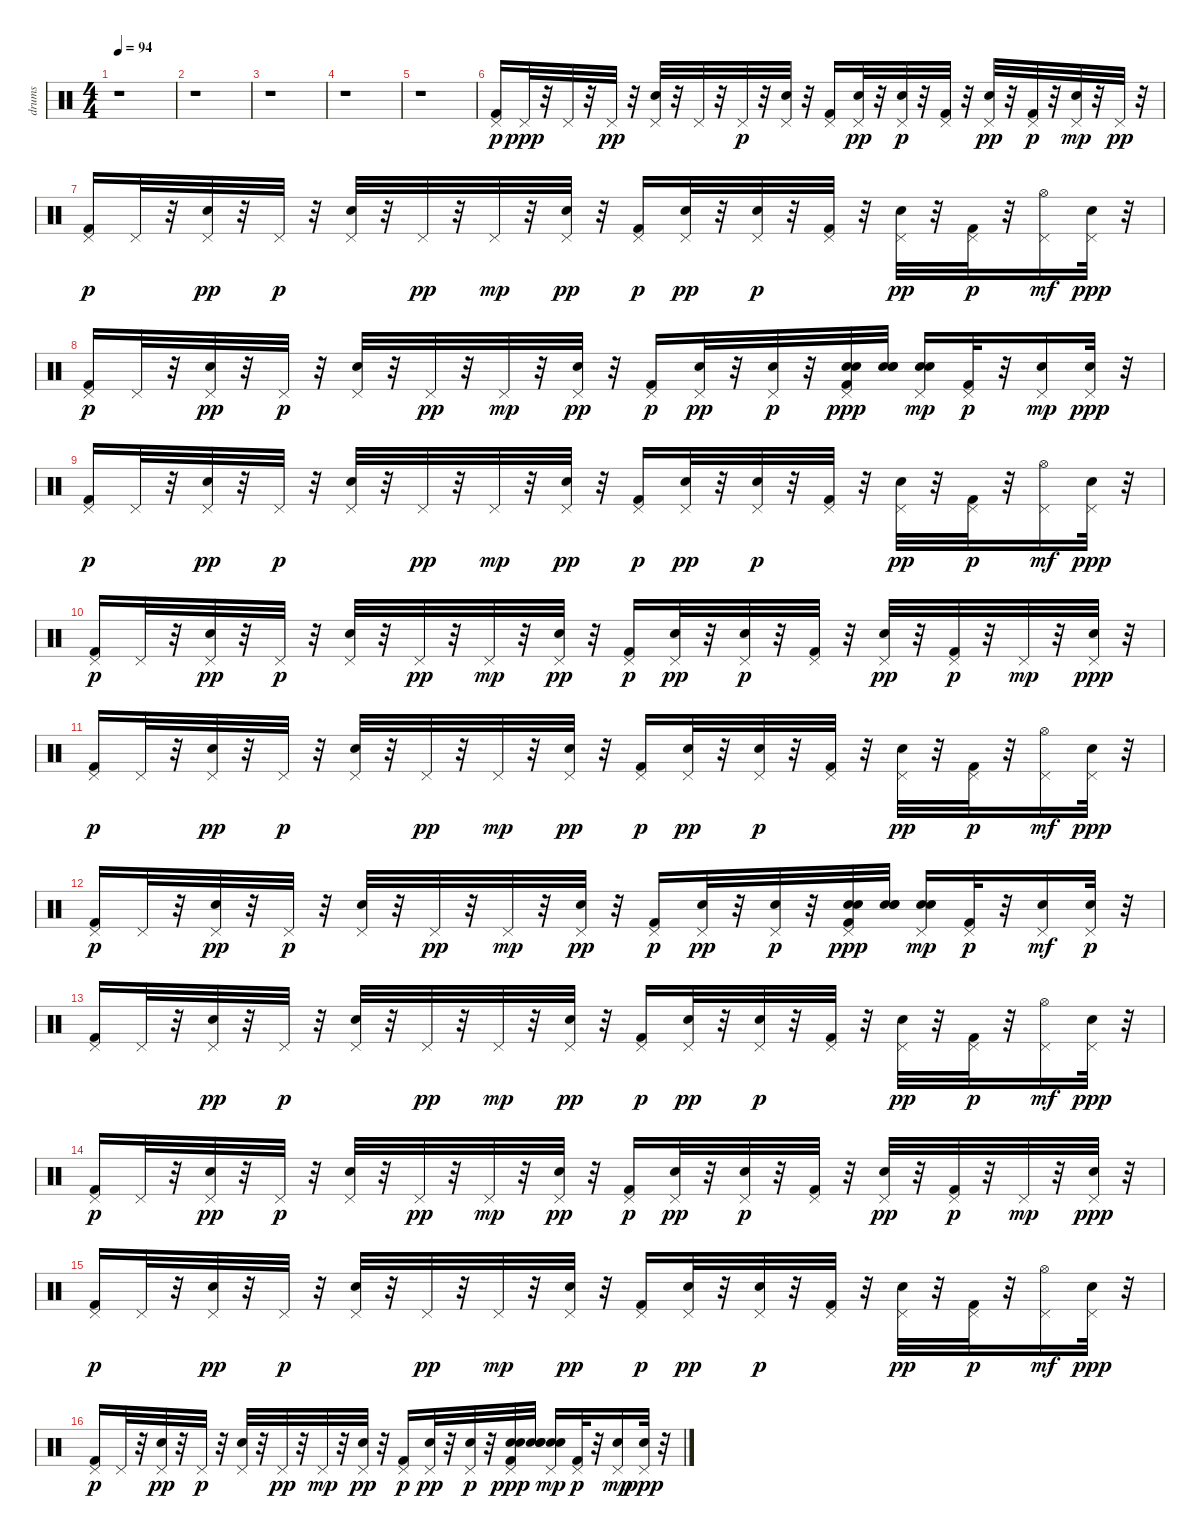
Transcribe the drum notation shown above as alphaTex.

\track ("drums" "drums") {instrument percussion}
\staff {score}
\articulation defaults
\ts (4 4)
\tempo 94
\clef neutral
\ks c
r.1{dy p} |
r.1 |
r.1 |
r.1 |
r.1 |
("Pedal Hi-Hat (hit)" "Kick (hit) 2").16{volume 14} "Pedal Hi-Hat (hit)".32{dy ppp} r.32 "Pedal Hi-Hat (hit)".32 r.32 "Pedal Hi-Hat (hit)".32{dy pp} r.32 ("Electric Snare (hit)" "Pedal Hi-Hat (hit)").32 r.32 "Pedal Hi-Hat (hit)".32 r.32 "Pedal Hi-Hat (hit)".32{dy p} r.32 ("Electric Snare (hit)" "Pedal Hi-Hat (hit)").32 r.32 ("Pedal Hi-Hat (hit)" "Kick (hit) 2").16 ("Pedal Hi-Hat (hit)" "Electric Snare (hit)").32{dy pp} r.32 ("Pedal Hi-Hat (hit)" "Electric Snare (hit)").32{dy p} r.32 ("Pedal Hi-Hat (hit)" "Kick (hit) 2").32 r.32 ("Pedal Hi-Hat (hit)" "Electric Snare (hit)").32{dy pp} r.32 ("Pedal Hi-Hat (hit)" "Kick (hit) 2").32{dy p} r.32 ("Electric Snare (hit)" "Pedal Hi-Hat (hit)").32{dy mp} r.32 "Pedal Hi-Hat (hit)".32{dy pp} r.32 |
("Pedal Hi-Hat (hit)" "Kick (hit) 2").16{dy p} "Pedal Hi-Hat (hit)".32 r.32 ("Pedal Hi-Hat (hit)" "Electric Snare (hit)").32{dy pp} r.32 "Pedal Hi-Hat (hit)".32{dy p} r.32 ("Pedal Hi-Hat (hit)" "Electric Snare (hit)").32 r.32 "Pedal Hi-Hat (hit)".32{dy pp} r.32 "Pedal Hi-Hat (hit)".32{dy mp} r.32 ("Pedal Hi-Hat (hit)" "Electric Snare (hit)").32{dy pp} r.32 ("Pedal Hi-Hat (hit)" "Kick (hit) 2").16{dy p} ("Pedal Hi-Hat (hit)" "Electric Snare (hit)").32{dy pp} r.32 ("Pedal Hi-Hat (hit)" "Electric Snare (hit)").32{dy p} r.32 ("Pedal Hi-Hat (hit)" "Kick (hit) 2").32 r.32 ("Pedal Hi-Hat (hit)" "Electric Snare (hit)").32{dy pp} r.32 ("Pedal Hi-Hat (hit)" "Kick (hit) 2").32{dy p} r.32 ("Hi-Hat (open)" "Pedal Hi-Hat (hit)").16{dy mf} ("Pedal Hi-Hat (hit)" "Electric Snare (hit)").32{dy ppp} r.32 |
("Pedal Hi-Hat (hit)" "Kick (hit) 2").16{dy p} "Pedal Hi-Hat (hit)".32 r.32 ("Pedal Hi-Hat (hit)" "Electric Snare (hit)").32{dy pp} r.32 "Pedal Hi-Hat (hit)".32{dy p} r.32 ("Pedal Hi-Hat (hit)" "Electric Snare (hit)").32 r.32 "Pedal Hi-Hat (hit)".32{dy pp} r.32 "Pedal Hi-Hat (hit)".32{dy mp} r.32 ("Pedal Hi-Hat (hit)" "Electric Snare (hit)").32{dy pp} r.32 ("Pedal Hi-Hat (hit)" "Kick (hit) 2").16{dy p} ("Pedal Hi-Hat (hit)" "Electric Snare (hit)").32{dy pp} r.32 ("Pedal Hi-Hat (hit)" "Electric Snare (hit)").32{dy p} r.32 ("Snare (hit) 2" "Pedal Hi-Hat (hit)" "Kick (hit) 2" "Snare (hit) 2").32{dy ppp balance 0} ("Snare (hit) 2" "Snare (hit) 2" "Snare (hit) 2").32 ("Snare (hit) 2" "Snare (hit) 2" "Pedal Hi-Hat (hit)").16{dy mp} ("Pedal Hi-Hat (hit)" "Kick (hit) 2").32{dy p} r.32 ("Snare (hit) 2" "Pedal Hi-Hat (hit)").16{dy mp} ("Pedal Hi-Hat (hit)" "Electric Snare (hit)").32{dy ppp} r.32 |
("Pedal Hi-Hat (hit)" "Kick (hit) 2").16{dy p} "Pedal Hi-Hat (hit)".32 r.32 ("Pedal Hi-Hat (hit)" "Electric Snare (hit)").32{dy pp} r.32 "Pedal Hi-Hat (hit)".32{dy p} r.32 ("Pedal Hi-Hat (hit)" "Electric Snare (hit)").32 r.32 "Pedal Hi-Hat (hit)".32{dy pp} r.32 "Pedal Hi-Hat (hit)".32{dy mp} r.32 ("Pedal Hi-Hat (hit)" "Electric Snare (hit)").32{dy pp} r.32 ("Pedal Hi-Hat (hit)" "Kick (hit) 2").16{dy p} ("Pedal Hi-Hat (hit)" "Electric Snare (hit)").32{dy pp} r.32 ("Pedal Hi-Hat (hit)" "Electric Snare (hit)").32{dy p} r.32 ("Pedal Hi-Hat (hit)" "Kick (hit) 2").32 r.32 ("Pedal Hi-Hat (hit)" "Electric Snare (hit)").32{dy pp} r.32 ("Pedal Hi-Hat (hit)" "Kick (hit) 2").32{dy p} r.32 ("Hi-Hat (open)" "Pedal Hi-Hat (hit)").16{dy mf} ("Pedal Hi-Hat (hit)" "Electric Snare (hit)").32{dy ppp} r.32 |
("Pedal Hi-Hat (hit)" "Kick (hit) 2").16{dy p} "Pedal Hi-Hat (hit)".32 r.32 ("Pedal Hi-Hat (hit)" "Electric Snare (hit)").32{dy pp} r.32 "Pedal Hi-Hat (hit)".32{dy p} r.32 ("Pedal Hi-Hat (hit)" "Electric Snare (hit)").32 r.32 "Pedal Hi-Hat (hit)".32{dy pp} r.32 "Pedal Hi-Hat (hit)".32{dy mp} r.32 ("Pedal Hi-Hat (hit)" "Electric Snare (hit)").32{dy pp} r.32 ("Pedal Hi-Hat (hit)" "Kick (hit) 2").16{dy p} ("Pedal Hi-Hat (hit)" "Electric Snare (hit)").32{dy pp} r.32 ("Pedal Hi-Hat (hit)" "Electric Snare (hit)").32{dy p} r.32 ("Pedal Hi-Hat (hit)" "Kick (hit) 2").32 r.32 ("Pedal Hi-Hat (hit)" "Electric Snare (hit)").32{dy pp} r.32 ("Pedal Hi-Hat (hit)" "Kick (hit) 2").32{dy p} r.32 "Pedal Hi-Hat (hit)".32{dy mp} r.32 ("Pedal Hi-Hat (hit)" "Electric Snare (hit)").32{dy ppp} r.32 |
("Pedal Hi-Hat (hit)" "Kick (hit) 2").16{dy p} "Pedal Hi-Hat (hit)".32 r.32 ("Pedal Hi-Hat (hit)" "Electric Snare (hit)").32{dy pp} r.32 "Pedal Hi-Hat (hit)".32{dy p} r.32 ("Pedal Hi-Hat (hit)" "Electric Snare (hit)").32 r.32 "Pedal Hi-Hat (hit)".32{dy pp} r.32 "Pedal Hi-Hat (hit)".32{dy mp} r.32 ("Pedal Hi-Hat (hit)" "Electric Snare (hit)").32{dy pp} r.32 ("Pedal Hi-Hat (hit)" "Kick (hit) 2").16{dy p} ("Pedal Hi-Hat (hit)" "Electric Snare (hit)").32{dy pp} r.32 ("Pedal Hi-Hat (hit)" "Electric Snare (hit)").32{dy p} r.32 ("Pedal Hi-Hat (hit)" "Kick (hit) 2").32 r.32 ("Pedal Hi-Hat (hit)" "Electric Snare (hit)").32{dy pp} r.32 ("Pedal Hi-Hat (hit)" "Kick (hit) 2").32{dy p} r.32 ("Hi-Hat (open)" "Pedal Hi-Hat (hit)").16{dy mf} ("Pedal Hi-Hat (hit)" "Electric Snare (hit)").32{dy ppp} r.32 |
("Pedal Hi-Hat (hit)" "Kick (hit) 2").16{dy p} "Pedal Hi-Hat (hit)".32 r.32 ("Pedal Hi-Hat (hit)" "Electric Snare (hit)").32{dy pp} r.32 "Pedal Hi-Hat (hit)".32{dy p} r.32 ("Pedal Hi-Hat (hit)" "Electric Snare (hit)").32 r.32 "Pedal Hi-Hat (hit)".32{dy pp} r.32 "Pedal Hi-Hat (hit)".32{dy mp} r.32 ("Pedal Hi-Hat (hit)" "Electric Snare (hit)").32{dy pp} r.32 ("Pedal Hi-Hat (hit)" "Kick (hit) 2").16{dy p} ("Pedal Hi-Hat (hit)" "Electric Snare (hit)").32{dy pp} r.32 ("Pedal Hi-Hat (hit)" "Electric Snare (hit)").32{dy p} r.32 ("Snare (hit) 2" "Pedal Hi-Hat (hit)" "Kick (hit) 2" "Snare (hit) 2").32{dy ppp balance 0} ("Snare (hit) 2" "Snare (hit) 2" "Snare (hit) 2").32 ("Snare (hit) 2" "Snare (hit) 2" "Pedal Hi-Hat (hit)").16{dy mp} ("Pedal Hi-Hat (hit)" "Kick (hit) 2").32{dy p} r.32 ("Snare (hit) 2" "Pedal Hi-Hat (hit)").16{dy mf} ("Electric Snare (hit)" "Pedal Hi-Hat (hit)").32{dy p} r.32 |
("Pedal Hi-Hat (hit)" "Kick (hit) 2").16 "Pedal Hi-Hat (hit)".32 r.32 ("Pedal Hi-Hat (hit)" "Electric Snare (hit)").32{dy pp} r.32 "Pedal Hi-Hat (hit)".32{dy p} r.32 ("Pedal Hi-Hat (hit)" "Electric Snare (hit)").32 r.32 "Pedal Hi-Hat (hit)".32{dy pp} r.32 "Pedal Hi-Hat (hit)".32{dy mp} r.32 ("Pedal Hi-Hat (hit)" "Electric Snare (hit)").32{dy pp} r.32 ("Pedal Hi-Hat (hit)" "Kick (hit) 2").16{dy p} ("Pedal Hi-Hat (hit)" "Electric Snare (hit)").32{dy pp} r.32 ("Pedal Hi-Hat (hit)" "Electric Snare (hit)").32{dy p} r.32 ("Pedal Hi-Hat (hit)" "Kick (hit) 2").32 r.32 ("Pedal Hi-Hat (hit)" "Electric Snare (hit)").32{dy pp} r.32 ("Pedal Hi-Hat (hit)" "Kick (hit) 2").32{dy p} r.32 ("Hi-Hat (open)" "Pedal Hi-Hat (hit)").16{dy mf} ("Pedal Hi-Hat (hit)" "Electric Snare (hit)").32{dy ppp} r.32 |
("Pedal Hi-Hat (hit)" "Kick (hit) 2").16{dy p} "Pedal Hi-Hat (hit)".32 r.32 ("Pedal Hi-Hat (hit)" "Electric Snare (hit)").32{dy pp} r.32 "Pedal Hi-Hat (hit)".32{dy p} r.32 ("Pedal Hi-Hat (hit)" "Electric Snare (hit)").32 r.32 "Pedal Hi-Hat (hit)".32{dy pp} r.32 "Pedal Hi-Hat (hit)".32{dy mp} r.32 ("Pedal Hi-Hat (hit)" "Electric Snare (hit)").32{dy pp} r.32 ("Pedal Hi-Hat (hit)" "Kick (hit) 2").16{dy p} ("Pedal Hi-Hat (hit)" "Electric Snare (hit)").32{dy pp} r.32 ("Pedal Hi-Hat (hit)" "Electric Snare (hit)").32{dy p} r.32 ("Pedal Hi-Hat (hit)" "Kick (hit) 2").32 r.32 ("Pedal Hi-Hat (hit)" "Electric Snare (hit)").32{dy pp} r.32 ("Pedal Hi-Hat (hit)" "Kick (hit) 2").32{dy p} r.32 "Pedal Hi-Hat (hit)".32{dy mp} r.32 ("Pedal Hi-Hat (hit)" "Electric Snare (hit)").32{dy ppp} r.32 |
("Pedal Hi-Hat (hit)" "Kick (hit) 2").16{dy p} "Pedal Hi-Hat (hit)".32 r.32 ("Pedal Hi-Hat (hit)" "Electric Snare (hit)").32{dy pp} r.32 "Pedal Hi-Hat (hit)".32{dy p} r.32 ("Pedal Hi-Hat (hit)" "Electric Snare (hit)").32 r.32 "Pedal Hi-Hat (hit)".32{dy pp} r.32 "Pedal Hi-Hat (hit)".32{dy mp} r.32 ("Pedal Hi-Hat (hit)" "Electric Snare (hit)").32{dy pp} r.32 ("Pedal Hi-Hat (hit)" "Kick (hit) 2").16{dy p} ("Pedal Hi-Hat (hit)" "Electric Snare (hit)").32{dy pp} r.32 ("Pedal Hi-Hat (hit)" "Electric Snare (hit)").32{dy p} r.32 ("Pedal Hi-Hat (hit)" "Kick (hit) 2").32 r.32 ("Pedal Hi-Hat (hit)" "Electric Snare (hit)").32{dy pp} r.32 ("Pedal Hi-Hat (hit)" "Kick (hit) 2").32{dy p} r.32 ("Hi-Hat (open)" "Pedal Hi-Hat (hit)").16{dy mf} ("Pedal Hi-Hat (hit)" "Electric Snare (hit)").32{dy ppp} r.32 |
("Pedal Hi-Hat (hit)" "Kick (hit) 2").16{dy p} "Pedal Hi-Hat (hit)".32 r.32 ("Pedal Hi-Hat (hit)" "Electric Snare (hit)").32{dy pp} r.32 "Pedal Hi-Hat (hit)".32{dy p} r.32 ("Pedal Hi-Hat (hit)" "Electric Snare (hit)").32 r.32 "Pedal Hi-Hat (hit)".32{dy pp} r.32 "Pedal Hi-Hat (hit)".32{dy mp} r.32 ("Pedal Hi-Hat (hit)" "Electric Snare (hit)").32{dy pp} r.32 ("Pedal Hi-Hat (hit)" "Kick (hit) 2").16{dy p} ("Pedal Hi-Hat (hit)" "Electric Snare (hit)").32{dy pp} r.32 ("Pedal Hi-Hat (hit)" "Electric Snare (hit)").32{dy p} r.32 ("Snare (hit) 2" "Pedal Hi-Hat (hit)" "Kick (hit) 2" "Snare (hit) 2").32{dy ppp balance 0} ("Snare (hit) 2" "Snare (hit) 2" "Snare (hit) 2").32 ("Snare (hit) 2" "Snare (hit) 2" "Pedal Hi-Hat (hit)").16{dy mp} ("Pedal Hi-Hat (hit)" "Kick (hit) 2").32{dy p} r.32 ("Snare (hit) 2" "Pedal Hi-Hat (hit)").16{dy mp} ("Pedal Hi-Hat (hit)" "Electric Snare (hit)").32{dy ppp} r.32
